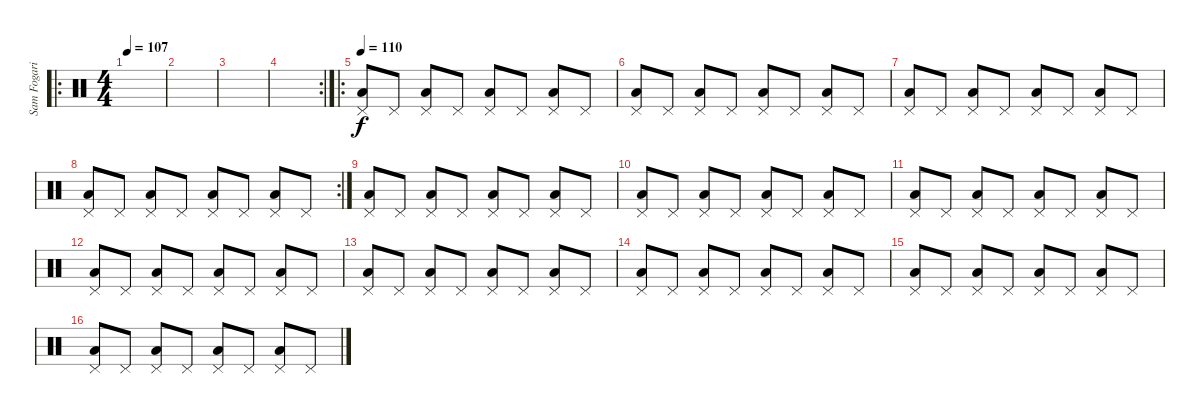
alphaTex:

\track ("Sam Fogarino (Drums)" "Sam Fogari") {instrument percussion}
\staff {score}
\articulation defaults
\ro
\ts (4 4)
\tempo 107
\clef neutral
\ks c
|
|
|
\rc 2
|
\ro
\tempo 110
("Low Tom (hit)" "Pedal Hi-Hat (hit)").8 "Pedal Hi-Hat (hit)".8 ("Low Tom (hit)" "Pedal Hi-Hat (hit)").8 "Pedal Hi-Hat (hit)".8 ("Low Tom (hit)" "Pedal Hi-Hat (hit)").8 "Pedal Hi-Hat (hit)".8 ("Low Tom (hit)" "Pedal Hi-Hat (hit)").8 "Pedal Hi-Hat (hit)".8 |
("Low Tom (hit)" "Pedal Hi-Hat (hit)").8 "Pedal Hi-Hat (hit)".8 ("Low Tom (hit)" "Pedal Hi-Hat (hit)").8 "Pedal Hi-Hat (hit)".8 ("Low Tom (hit)" "Pedal Hi-Hat (hit)").8 "Pedal Hi-Hat (hit)".8 ("Low Tom (hit)" "Pedal Hi-Hat (hit)").8 "Pedal Hi-Hat (hit)".8 |
("Low Tom (hit)" "Pedal Hi-Hat (hit)").8 "Pedal Hi-Hat (hit)".8 ("Low Tom (hit)" "Pedal Hi-Hat (hit)").8 "Pedal Hi-Hat (hit)".8 ("Low Tom (hit)" "Pedal Hi-Hat (hit)").8 "Pedal Hi-Hat (hit)".8 ("Low Tom (hit)" "Pedal Hi-Hat (hit)").8 "Pedal Hi-Hat (hit)".8 |
\rc 2
("Low Tom (hit)" "Pedal Hi-Hat (hit)").8 "Pedal Hi-Hat (hit)".8 ("Low Tom (hit)" "Pedal Hi-Hat (hit)").8 "Pedal Hi-Hat (hit)".8 ("Low Tom (hit)" "Pedal Hi-Hat (hit)").8 "Pedal Hi-Hat (hit)".8 ("Low Tom (hit)" "Pedal Hi-Hat (hit)").8 "Pedal Hi-Hat (hit)".8 |
("Low Tom (hit)" "Pedal Hi-Hat (hit)").8 "Pedal Hi-Hat (hit)".8 ("Low Tom (hit)" "Pedal Hi-Hat (hit)").8 "Pedal Hi-Hat (hit)".8 ("Low Tom (hit)" "Pedal Hi-Hat (hit)").8 "Pedal Hi-Hat (hit)".8 ("Low Tom (hit)" "Pedal Hi-Hat (hit)").8 "Pedal Hi-Hat (hit)".8 |
("Low Tom (hit)" "Pedal Hi-Hat (hit)").8 "Pedal Hi-Hat (hit)".8 ("Low Tom (hit)" "Pedal Hi-Hat (hit)").8 "Pedal Hi-Hat (hit)".8 ("Low Tom (hit)" "Pedal Hi-Hat (hit)").8 "Pedal Hi-Hat (hit)".8 ("Low Tom (hit)" "Pedal Hi-Hat (hit)").8 "Pedal Hi-Hat (hit)".8 |
("Low Tom (hit)" "Pedal Hi-Hat (hit)").8 "Pedal Hi-Hat (hit)".8 ("Low Tom (hit)" "Pedal Hi-Hat (hit)").8 "Pedal Hi-Hat (hit)".8 ("Low Tom (hit)" "Pedal Hi-Hat (hit)").8 "Pedal Hi-Hat (hit)".8 ("Low Tom (hit)" "Pedal Hi-Hat (hit)").8 "Pedal Hi-Hat (hit)".8 |
("Low Tom (hit)" "Pedal Hi-Hat (hit)").8 "Pedal Hi-Hat (hit)".8 ("Low Tom (hit)" "Pedal Hi-Hat (hit)").8 "Pedal Hi-Hat (hit)".8 ("Low Tom (hit)" "Pedal Hi-Hat (hit)").8 "Pedal Hi-Hat (hit)".8 ("Low Tom (hit)" "Pedal Hi-Hat (hit)").8 "Pedal Hi-Hat (hit)".8 |
("Low Tom (hit)" "Pedal Hi-Hat (hit)").8 "Pedal Hi-Hat (hit)".8 ("Low Tom (hit)" "Pedal Hi-Hat (hit)").8 "Pedal Hi-Hat (hit)".8 ("Low Tom (hit)" "Pedal Hi-Hat (hit)").8 "Pedal Hi-Hat (hit)".8 ("Low Tom (hit)" "Pedal Hi-Hat (hit)").8 "Pedal Hi-Hat (hit)".8 |
("Low Tom (hit)" "Pedal Hi-Hat (hit)").8 "Pedal Hi-Hat (hit)".8 ("Low Tom (hit)" "Pedal Hi-Hat (hit)").8 "Pedal Hi-Hat (hit)".8 ("Low Tom (hit)" "Pedal Hi-Hat (hit)").8 "Pedal Hi-Hat (hit)".8 ("Low Tom (hit)" "Pedal Hi-Hat (hit)").8 "Pedal Hi-Hat (hit)".8 |
("Low Tom (hit)" "Pedal Hi-Hat (hit)").8 "Pedal Hi-Hat (hit)".8 ("Low Tom (hit)" "Pedal Hi-Hat (hit)").8 "Pedal Hi-Hat (hit)".8 ("Low Tom (hit)" "Pedal Hi-Hat (hit)").8 "Pedal Hi-Hat (hit)".8 ("Low Tom (hit)" "Pedal Hi-Hat (hit)").8 "Pedal Hi-Hat (hit)".8 |
("Low Tom (hit)" "Pedal Hi-Hat (hit)").8 "Pedal Hi-Hat (hit)".8 ("Low Tom (hit)" "Pedal Hi-Hat (hit)").8 "Pedal Hi-Hat (hit)".8 ("Low Tom (hit)" "Pedal Hi-Hat (hit)").8 "Pedal Hi-Hat (hit)".8 ("Low Tom (hit)" "Pedal Hi-Hat (hit)").8 "Pedal Hi-Hat (hit)".8
